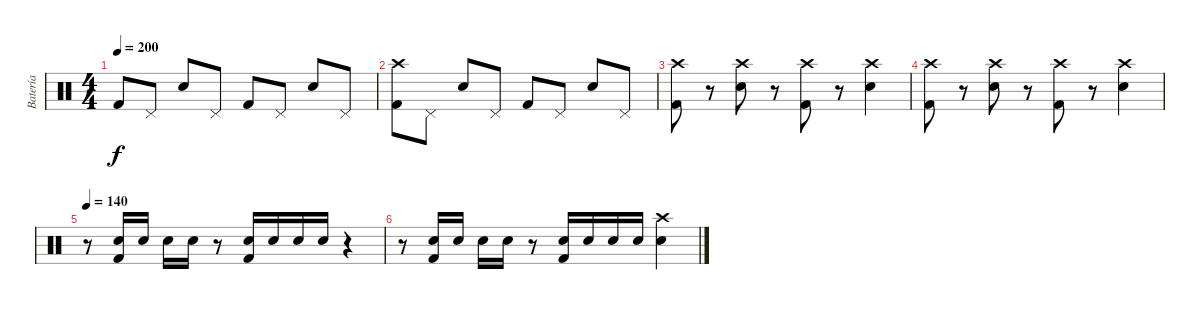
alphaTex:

\track ("Batería" "Batería") {instrument percussion}
\staff {score}
\articulation defaults
\ts (4 4)
\tempo 200
\clef neutral
\ks c "Kick (hit) 2".8{dy f} "Pedal Hi-Hat (hit)".8 "Snare (hit) 2".8 "Pedal Hi-Hat (hit)".8 "Kick (hit) 2".8 "Pedal Hi-Hat (hit)".8 "Snare (hit) 2".8 "Pedal Hi-Hat (hit)".8
|
("Crash high (hit)" "Kick (hit) 2").8 "Pedal Hi-Hat (hit)".8 "Snare (hit) 2".8 "Pedal Hi-Hat (hit)".8 "Kick (hit) 2".8 "Pedal Hi-Hat (hit)".8 "Snare (hit) 2".8 "Pedal Hi-Hat (hit)".8 |
("Crash high (hit)" "Kick (hit) 2").8 r.8 ("Crash high (hit)" "Snare (hit) 2").8 r.8 ("Crash high (hit)" "Kick (hit) 2").8 r.8 ("Crash high (hit)" "Snare (hit) 2").4 |
("Crash high (hit)" "Kick (hit) 2").8 r.8 ("Crash high (hit)" "Snare (hit) 2").8 r.8 ("Crash high (hit)" "Kick (hit) 2").8 r.8 ("Crash high (hit)" "Snare (hit) 2").4 |
\tempo 140
r.8 ("Snare (hit) 2" "Kick (hit) 2").16 "Snare (hit) 2".16 "Snare (hit) 2".16 "Snare (hit) 2".16 r.8 ("Snare (hit) 2" "Kick (hit) 2").16 "Snare (hit) 2".16 "Snare (hit) 2".16 "Snare (hit) 2".16 r.4 |
r.8 ("Snare (hit) 2" "Kick (hit) 2").16 "Snare (hit) 2".16 "Snare (hit) 2".16 "Snare (hit) 2".16 r.8 ("Snare (hit) 2" "Kick (hit) 2").16 "Snare (hit) 2".16 "Snare (hit) 2".16 "Snare (hit) 2".16 ("Crash high (hit)" "Snare (hit) 2").4
